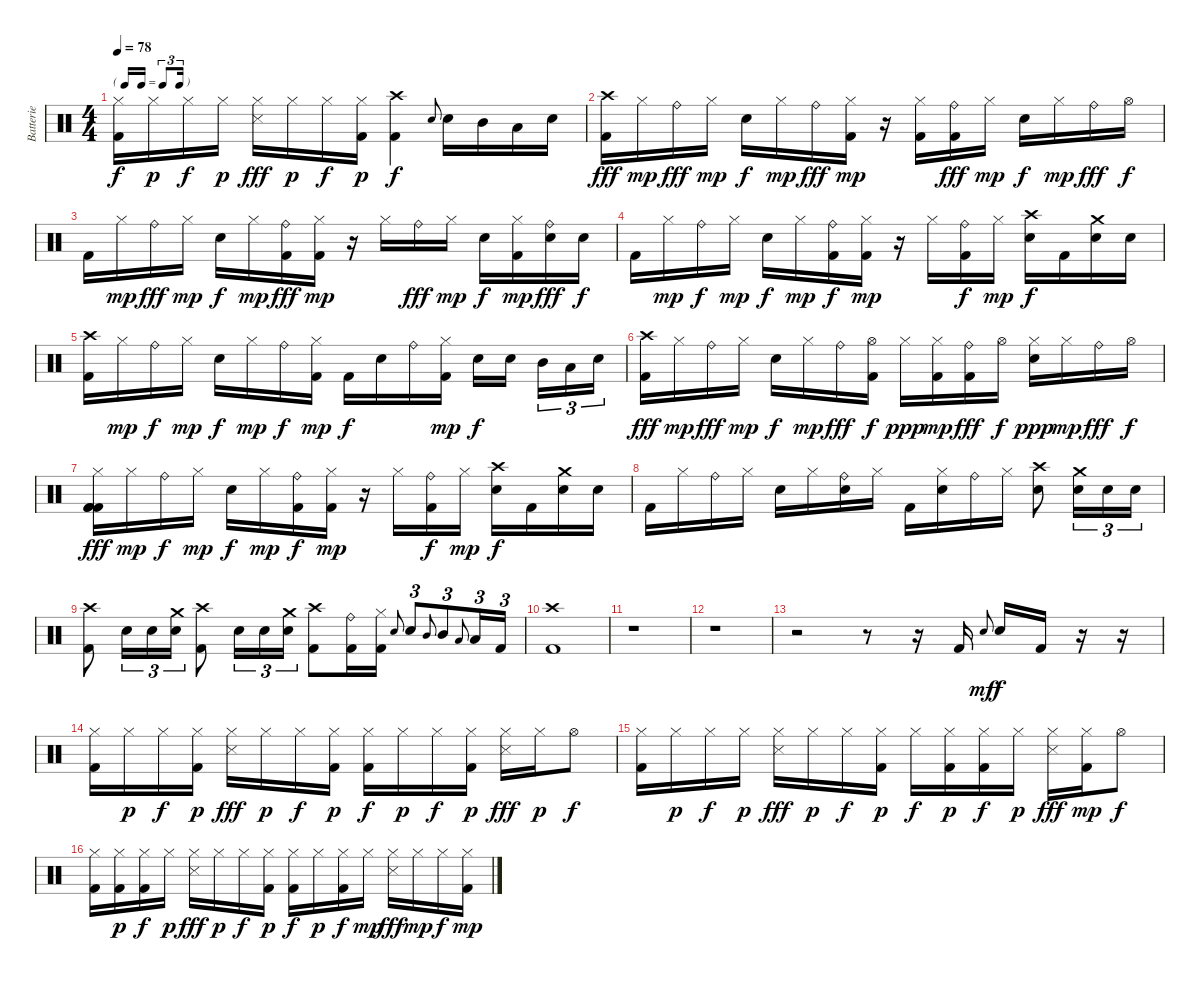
\track ("Batterie" "Batterie") {instrument percussion}
\staff {score}
\articulation defaults
\ts (4 4)
\tf triplet16th
\tempo 78
\clef neutral
\ks c
("Hi-Hat (closed)" "Kick (hit) 2").16{dy f} "Hi-Hat (closed)".16{dy p} "Hi-Hat (closed)".16{dy f} "Hi-Hat (closed)".16{dy p} ("Hi-Hat (closed)" "Snare (side stick) 3").16{dy fff} "Hi-Hat (closed)".16{dy p} "Hi-Hat (closed)".16{dy f} ("Hi-Hat (closed)" "Kick (hit) 2").16{dy p} ("Crash high (hit)" "Kick (hit) 2").4{dy f} "Electric Snare (hit)".8{gr onbeat} "Electric Snare (hit)".16 "Mid Tom (hit)".16 "Low Tom (hit)".16 "Electric Snare (hit)".16 |
("Crash high (hit)" "Kick (hit) 2").16{dy fff} "Hi-Hat (closed)".16{dy mp} "Ride (bell)".16{dy fff} "Hi-Hat (closed)".16{dy mp} "Electric Snare (hit)".16{dy f} "Hi-Hat (closed)".16{dy mp} "Ride (bell)".16{dy fff} ("Hi-Hat (closed)" "Kick (hit) 2").16{dy mp} r.16 ("Hi-Hat (closed)" "Kick (hit) 2").16 ("Ride (bell)" "Kick (hit) 2").16{dy fff} "Hi-Hat (closed)".16{dy mp} "Electric Snare (hit)".16{dy f} "Hi-Hat (closed)".16{dy mp} "Ride (bell)".16{dy fff} "Hi-Hat (open)".16{dy f} |
"Kick (hit) 2".16 "Hi-Hat (closed)".16{dy mp} "Ride (bell)".16{dy fff} "Hi-Hat (closed)".16{dy mp} "Electric Snare (hit)".16{dy f} "Hi-Hat (closed)".16{dy mp} ("Ride (bell)" "Kick (hit) 2").16{dy fff} ("Hi-Hat (closed)" "Kick (hit) 2").16{dy mp} r.16 "Hi-Hat (closed)".16 "Ride (bell)".16{dy fff} "Hi-Hat (closed)".16{dy mp} "Electric Snare (hit)".16{dy f} ("Hi-Hat (closed)" "Kick (hit) 2").16{dy mp} ("Ride (bell)" "Electric Snare (hit)").16{dy fff} "Electric Snare (hit)".16{dy f} |
"Kick (hit) 2".16 "Hi-Hat (closed)".16{dy mp} "Ride (bell)".16{dy f} "Hi-Hat (closed)".16{dy mp} "Electric Snare (hit)".16{dy f} "Hi-Hat (closed)".16{dy mp} ("Ride (bell)" "Kick (hit) 2").16{dy f} ("Hi-Hat (closed)" "Kick (hit) 2").16{dy mp} r.16 "Hi-Hat (closed)".16 ("Ride (bell)" "Kick (hit) 2").16{dy f} "Hi-Hat (closed)".16{dy mp} ("Crash high (hit)" "Electric Snare (hit)").16{dy f} "Kick (hit) 2".16 ("Crash medium (hit)" "Electric Snare (hit)").16 "Electric Snare (hit)".16 |
("Crash high (hit)" "Kick (hit) 2").16 "Hi-Hat (closed)".16{dy mp} "Ride (bell)".16{dy f} "Hi-Hat (closed)".16{dy mp} "Electric Snare (hit)".16{dy f} "Hi-Hat (closed)".16{dy mp} "Ride (bell)".16{dy f} ("Hi-Hat (closed)" "Kick (hit) 2").16{dy mp} "Kick (hit) 2".16{dy f} "Electric Snare (hit)".16 "Ride (bell)".16 ("Hi-Hat (closed)" "Kick (hit) 2").16{dy mp} "Electric Snare (hit)".16{dy f} "Electric Snare (hit)".16{beam splitsecondary} "Mid Tom (hit)".16{tu (3 2)} "Low Tom (hit)".16{tu (3 2)} "Electric Snare (hit)".16{tu (3 2)} |
("Crash high (hit)" "Kick (hit) 2").16{dy fff} "Hi-Hat (closed)".16{dy mp} "Ride (bell)".16{dy fff} "Hi-Hat (closed)".16{dy mp} "Electric Snare (hit)".16{dy f} "Hi-Hat (closed)".16{dy mp} "Ride (bell)".16{dy fff} ("Hi-Hat (open)" "Kick (hit) 2").16{dy f} "Hi-Hat (closed)".16{dy ppp} ("Hi-Hat (closed)" "Kick (hit) 2").16{dy mp} ("Ride (bell)" "Kick (hit) 2").16{dy fff} "Hi-Hat (open)".16{dy f} ("Hi-Hat (closed)" "Electric Snare (hit)").16{dy ppp} "Hi-Hat (closed)".16{dy mp} "Ride (bell)".16{dy fff} "Hi-Hat (open)".16{dy f} |
("Hi-Hat (closed)" "Kick (hit) 2" "Kick (hit) 2" "Kick (hit) 2").16{dy fff} "Hi-Hat (closed)".16{dy mp} "Ride (bell)".16{dy f} "Hi-Hat (closed)".16{dy mp} "Electric Snare (hit)".16{dy f} "Hi-Hat (closed)".16{dy mp} ("Ride (bell)" "Kick (hit) 2").16{dy f} ("Hi-Hat (closed)" "Kick (hit) 2").16{dy mp} r.16 "Hi-Hat (closed)".16 ("Ride (bell)" "Kick (hit) 2").16{dy f} "Hi-Hat (closed)".16{dy mp} ("Crash high (hit)" "Electric Snare (hit)").16{dy f} "Kick (hit) 2".16 ("Crash medium (hit)" "Electric Snare (hit)").16 "Electric Snare (hit)".16 |
"Kick (hit) 2".16 "Hi-Hat (closed)".16 "Ride (bell)".16 "Hi-Hat (closed)".16 "Electric Snare (hit)".16 "Hi-Hat (closed)".16 ("Ride (bell)" "Electric Snare (hit)").16 "Hi-Hat (closed)".16 "Kick (hit) 2".16 ("Hi-Hat (closed)" "Electric Snare (hit)").16 "Ride (bell)".16 "Hi-Hat (closed)".16 ("Crash high (hit)" "Electric Snare (hit)").8 ("Crash medium (hit)" "Electric Snare (hit)").16{tu (3 2)} "Electric Snare (hit)".16{tu (3 2)} "Electric Snare (hit)".16{tu (3 2)} |
("Crash high (hit)" "Kick (hit) 2").8 "Electric Snare (hit)".16{tu (3 2)} "Electric Snare (hit)".16{tu (3 2)} ("Crash medium (hit)" "Electric Snare (hit)").16{tu (3 2)} ("Crash high (hit)" "Kick (hit) 2").8 "Electric Snare (hit)".16{tu (3 2)} "Electric Snare (hit)".16{tu (3 2)} ("Crash medium (hit)" "Electric Snare (hit)").16{tu (3 2)} ("Crash high (hit)" "Kick (hit) 2").8 ("Ride (bell)" "Kick (hit) 2").16 ("Hi-Hat (closed)" "Kick (hit) 2").16 "Electric Snare (hit)".8{gr onbeat} "Electric Snare (hit)".8{tu (3 2)} "Mid Tom (hit)".8{gr onbeat} "Mid Tom (hit)".8{tu (3 2)} "Low Tom (hit)".8{gr onbeat} "Low Tom (hit)".16{tu (3 2)} "Kick (hit) 2".16{tu (3 2)} |
("Crash high (hit)" "Kick (hit) 2").1 |
r.1 |
r.1 |
r.2 r.8 r.16 "Kick (hit) 2".16 "Electric Snare (hit)".8{gr onbeat dy mf} "Electric Snare (hit)".16{dy f} "Kick (hit) 2".16 r.16 r.16 |
("Hi-Hat (closed)" "Kick (hit) 2").16 "Hi-Hat (closed)".16{dy p} "Hi-Hat (closed)".16{dy f} ("Hi-Hat (closed)" "Kick (hit) 2").16{dy p} ("Hi-Hat (closed)" "Snare (side stick) 3").16{dy fff} "Hi-Hat (closed)".16{dy p} "Hi-Hat (closed)".16{dy f} ("Hi-Hat (closed)" "Kick (hit) 2").16{dy p} ("Hi-Hat (closed)" "Kick (hit) 2").16{dy f} "Hi-Hat (closed)".16{dy p} "Hi-Hat (closed)".16{dy f} ("Hi-Hat (closed)" "Kick (hit) 2").16{dy p} ("Hi-Hat (closed)" "Snare (side stick) 3").16{dy fff} "Hi-Hat (closed)".16{dy p} "Hi-Hat (open)".8{dy f} |
("Hi-Hat (closed)" "Kick (hit) 2").16 "Hi-Hat (closed)".16{dy p} "Hi-Hat (closed)".16{dy f} "Hi-Hat (closed)".16{dy p} ("Hi-Hat (closed)" "Snare (side stick) 3").16{dy fff} "Hi-Hat (closed)".16{dy p} "Hi-Hat (closed)".16{dy f} ("Hi-Hat (closed)" "Kick (hit) 2").16{dy p} "Hi-Hat (closed)".16{dy f} ("Hi-Hat (closed)" "Kick (hit) 2").16{dy p} ("Hi-Hat (closed)" "Kick (hit) 2").16{dy f} "Hi-Hat (closed)".16{dy p} ("Hi-Hat (closed)" "Snare (side stick) 3").16{dy fff} ("Hi-Hat (closed)" "Kick (hit) 2").16{dy mp} "Hi-Hat (open)".8{dy f} |
("Hi-Hat (closed)" "Kick (hit) 2").16 ("Hi-Hat (closed)" "Kick (hit) 2").16{dy p} ("Hi-Hat (closed)" "Kick (hit) 2").16{dy f} "Hi-Hat (closed)".16{dy p} ("Hi-Hat (closed)" "Snare (side stick) 3").16{dy fff} "Hi-Hat (closed)".16{dy p} "Hi-Hat (closed)".16{dy f} ("Hi-Hat (closed)" "Kick (hit) 2").16{dy p} ("Hi-Hat (closed)" "Kick (hit) 2").16{dy f} "Hi-Hat (closed)".16{dy p} ("Hi-Hat (closed)" "Kick (hit) 2").16{dy f} "Hi-Hat (closed)".16{dy mp} ("Hi-Hat (closed)" "Snare (side stick) 3").16{dy fff} "Hi-Hat (closed)".16{dy mp} "Hi-Hat (closed)".16{dy f} ("Hi-Hat (closed)" "Kick (hit) 2").16{dy mp}
